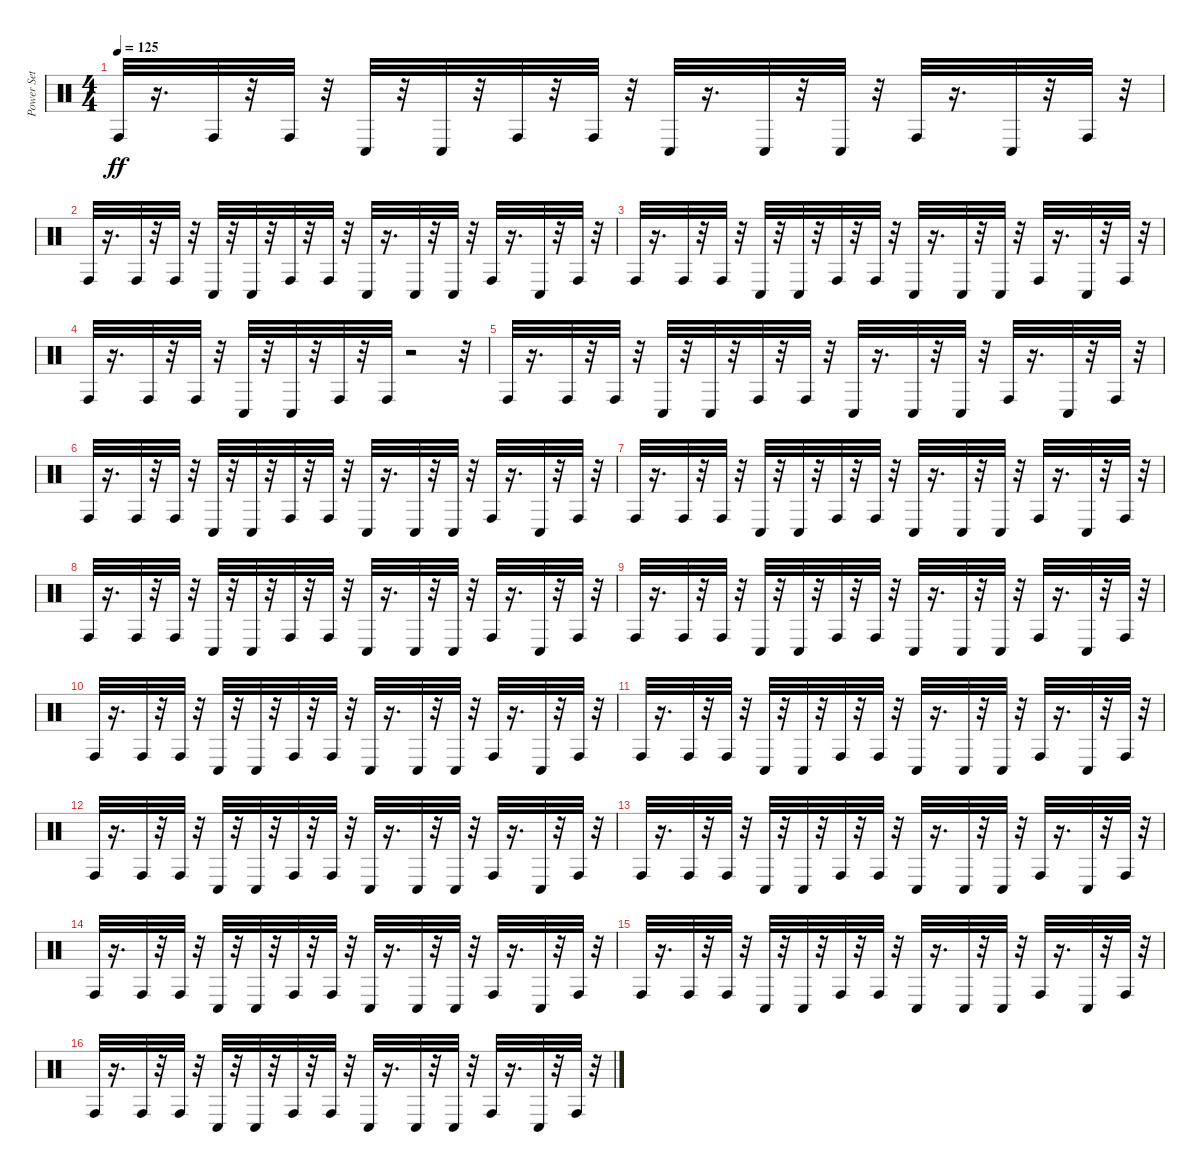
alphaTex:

\track ("Power Set" "Power Set") {instrument percussion}
\staff {score}
\articulation defaults
\ts (4 4)
\tempo 125
\clef neutral
\ks c "Conga high (hit)".32{dy ff}
r.16{d} "Conga high (hit)".32 r.32 "Conga high (hit)".32 r.32 "Conga low (hit)".32 r.32 "Conga low (hit)".32 r.32 "Conga high (hit)".32 r.32 "Conga high (hit)".32 r.32 "Conga low (hit)".32 r.16{d} "Conga low (hit)".32 r.32 "Conga low (hit)".32 r.32 "Conga high (hit)".32 r.16{d} "Conga low (hit)".32 r.32 "Conga high (hit)".32 r.32 |
"Conga high (hit)".32 r.16{d} "Conga high (hit)".32 r.32 "Conga high (hit)".32 r.32 "Conga low (hit)".32 r.32 "Conga low (hit)".32 r.32 "Conga high (hit)".32 r.32 "Conga high (hit)".32 r.32 "Conga low (hit)".32 r.16{d} "Conga low (hit)".32 r.32 "Conga low (hit)".32 r.32 "Conga high (hit)".32 r.16{d} "Conga low (hit)".32 r.32 "Conga high (hit)".32 r.32 |
"Conga high (hit)".32 r.16{d} "Conga high (hit)".32 r.32 "Conga high (hit)".32 r.32 "Conga low (hit)".32 r.32 "Conga low (hit)".32 r.32 "Conga high (hit)".32 r.32 "Conga high (hit)".32 r.32 "Conga low (hit)".32 r.16{d} "Conga low (hit)".32 r.32 "Conga low (hit)".32 r.32 "Conga high (hit)".32 r.16{d} "Conga low (hit)".32 r.32 "Conga high (hit)".32 r.32 |
"Conga high (hit)".32 r.16{d} "Conga high (hit)".32 r.32 "Conga high (hit)".32 r.32 "Conga low (hit)".32 r.32 "Conga low (hit)".32 r.32 "Conga high (hit)".32 r.32 "Conga high (hit)".32 r.2 r.32 |
"Conga high (hit)".32 r.16{d} "Conga high (hit)".32 r.32 "Conga high (hit)".32 r.32 "Conga low (hit)".32 r.32 "Conga low (hit)".32 r.32 "Conga high (hit)".32 r.32 "Conga high (hit)".32 r.32 "Conga low (hit)".32 r.16{d} "Conga low (hit)".32 r.32 "Conga low (hit)".32 r.32 "Conga high (hit)".32 r.16{d} "Conga low (hit)".32 r.32 "Conga high (hit)".32 r.32 |
"Conga high (hit)".32 r.16{d} "Conga high (hit)".32 r.32 "Conga high (hit)".32 r.32 "Conga low (hit)".32 r.32 "Conga low (hit)".32 r.32 "Conga high (hit)".32 r.32 "Conga high (hit)".32 r.32 "Conga low (hit)".32 r.16{d} "Conga low (hit)".32 r.32 "Conga low (hit)".32 r.32 "Conga high (hit)".32 r.16{d} "Conga low (hit)".32 r.32 "Conga high (hit)".32 r.32 |
"Conga high (hit)".32 r.16{d} "Conga high (hit)".32 r.32 "Conga high (hit)".32 r.32 "Conga low (hit)".32 r.32 "Conga low (hit)".32 r.32 "Conga high (hit)".32 r.32 "Conga high (hit)".32 r.32 "Conga low (hit)".32 r.16{d} "Conga low (hit)".32 r.32 "Conga low (hit)".32 r.32 "Conga high (hit)".32 r.16{d} "Conga low (hit)".32 r.32 "Conga high (hit)".32 r.32 |
"Conga high (hit)".32 r.16{d} "Conga high (hit)".32 r.32 "Conga high (hit)".32 r.32 "Conga low (hit)".32 r.32 "Conga low (hit)".32 r.32 "Conga high (hit)".32 r.32 "Conga high (hit)".32 r.32 "Conga low (hit)".32 r.16{d} "Conga low (hit)".32 r.32 "Conga low (hit)".32 r.32 "Conga high (hit)".32 r.16{d} "Conga low (hit)".32 r.32 "Conga high (hit)".32 r.32 |
"Conga high (hit)".32 r.16{d} "Conga high (hit)".32 r.32 "Conga high (hit)".32 r.32 "Conga low (hit)".32 r.32 "Conga low (hit)".32 r.32 "Conga high (hit)".32 r.32 "Conga high (hit)".32 r.32 "Conga low (hit)".32 r.16{d} "Conga low (hit)".32 r.32 "Conga low (hit)".32 r.32 "Conga high (hit)".32 r.16{d} "Conga low (hit)".32 r.32 "Conga high (hit)".32 r.32 |
"Conga high (hit)".32 r.16{d} "Conga high (hit)".32 r.32 "Conga high (hit)".32 r.32 "Conga low (hit)".32 r.32 "Conga low (hit)".32 r.32 "Conga high (hit)".32 r.32 "Conga high (hit)".32 r.32 "Conga low (hit)".32 r.16{d} "Conga low (hit)".32 r.32 "Conga low (hit)".32 r.32 "Conga high (hit)".32 r.16{d} "Conga low (hit)".32 r.32 "Conga high (hit)".32 r.32 |
"Conga high (hit)".32 r.16{d} "Conga high (hit)".32 r.32 "Conga high (hit)".32 r.32 "Conga low (hit)".32 r.32 "Conga low (hit)".32 r.32 "Conga high (hit)".32 r.32 "Conga high (hit)".32 r.32 "Conga low (hit)".32 r.16{d} "Conga low (hit)".32 r.32 "Conga low (hit)".32 r.32 "Conga high (hit)".32 r.16{d} "Conga low (hit)".32 r.32 "Conga high (hit)".32 r.32 |
"Conga high (hit)".32 r.16{d} "Conga high (hit)".32 r.32 "Conga high (hit)".32 r.32 "Conga low (hit)".32 r.32 "Conga low (hit)".32 r.32 "Conga high (hit)".32 r.32 "Conga high (hit)".32 r.32 "Conga low (hit)".32 r.16{d} "Conga low (hit)".32 r.32 "Conga low (hit)".32 r.32 "Conga high (hit)".32 r.16{d} "Conga low (hit)".32 r.32 "Conga high (hit)".32 r.32 |
"Conga high (hit)".32 r.16{d} "Conga high (hit)".32 r.32 "Conga high (hit)".32 r.32 "Conga low (hit)".32 r.32 "Conga low (hit)".32 r.32 "Conga high (hit)".32 r.32 "Conga high (hit)".32 r.32 "Conga low (hit)".32 r.16{d} "Conga low (hit)".32 r.32 "Conga low (hit)".32 r.32 "Conga high (hit)".32 r.16{d} "Conga low (hit)".32 r.32 "Conga high (hit)".32 r.32 |
"Conga high (hit)".32 r.16{d} "Conga high (hit)".32 r.32 "Conga high (hit)".32 r.32 "Conga low (hit)".32 r.32 "Conga low (hit)".32 r.32 "Conga high (hit)".32 r.32 "Conga high (hit)".32 r.32 "Conga low (hit)".32 r.16{d} "Conga low (hit)".32 r.32 "Conga low (hit)".32 r.32 "Conga high (hit)".32 r.16{d} "Conga low (hit)".32 r.32 "Conga high (hit)".32 r.32 |
"Conga high (hit)".32 r.16{d} "Conga high (hit)".32 r.32 "Conga high (hit)".32 r.32 "Conga low (hit)".32 r.32 "Conga low (hit)".32 r.32 "Conga high (hit)".32 r.32 "Conga high (hit)".32 r.32 "Conga low (hit)".32 r.16{d} "Conga low (hit)".32 r.32 "Conga low (hit)".32 r.32 "Conga high (hit)".32 r.16{d} "Conga low (hit)".32 r.32 "Conga high (hit)".32 r.32 |
"Conga high (hit)".32 r.16{d} "Conga high (hit)".32 r.32 "Conga high (hit)".32 r.32 "Conga low (hit)".32 r.32 "Conga low (hit)".32 r.32 "Conga high (hit)".32 r.32 "Conga high (hit)".32 r.32 "Conga low (hit)".32 r.16{d} "Conga low (hit)".32 r.32 "Conga low (hit)".32 r.32 "Conga high (hit)".32 r.16{d} "Conga low (hit)".32 r.32 "Conga high (hit)".32 r.32
